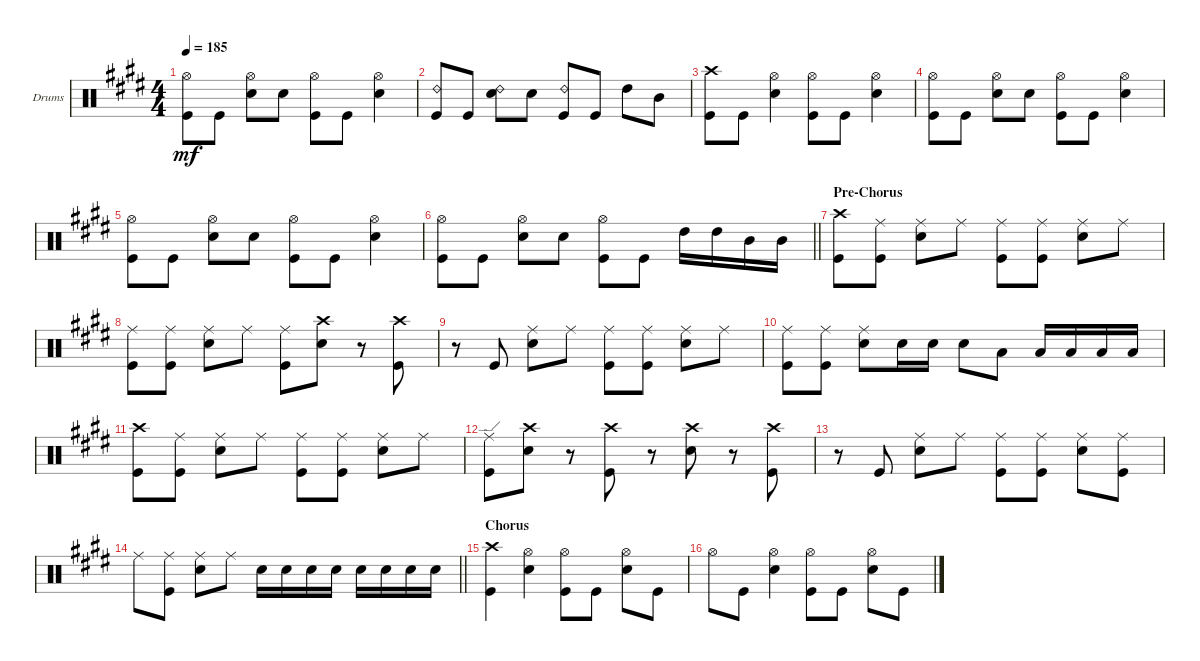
\defaultSystemsLayout 4
\bracketExtendMode groupsimilarinstruments
\firstSystemTrackNameOrientation horizontal
\otherSystemsTrackNameOrientation horizontal
\track ("Drums" "Drums") {instrument percussion}
\staff {score}
\articulation defaults
\ts (4 4)
\tempo 185
\clef neutral
\ks e
("Kick (hit)" "Hi-Hat (open)").8{dy mf} "Kick (hit)".8 ("Snare (hit) 2" "Hi-Hat (open)").8 "Snare (hit) 2".8 ("Kick (hit)" "Hi-Hat (open)").8 "Kick (hit)".8 ("Snare (hit) 2" "Hi-Hat (open)").4 |
("Kick (hit)" "Ride (bell) 2").8 "Kick (hit)".8 ("Snare (hit) 2" "Ride (bell) 2").8 "Snare (hit) 2".8 ("Kick (hit)" "Ride (bell) 2").8 "Kick (hit)".8 "High Tom (hit)".8 "Mid Tom (hit)".8 |
("Kick (hit)" "Crash high (hit)").8 "Kick (hit)".8 ("Snare (hit) 2" "Hi-Hat (open)").4 ("Kick (hit)" "Hi-Hat (open)").8 "Kick (hit)".8 ("Snare (hit) 2" "Hi-Hat (open)").4 |
("Kick (hit)" "Hi-Hat (open)").8 "Kick (hit)".8 ("Snare (hit) 2" "Hi-Hat (open)").8 "Snare (hit) 2".8 ("Kick (hit)" "Hi-Hat (open)").8 "Kick (hit)".8 ("Snare (hit) 2" "Hi-Hat (open)").4 |
("Kick (hit)" "Hi-Hat (open)").8 "Kick (hit)".8 ("Snare (hit) 2" "Hi-Hat (open)").8 "Snare (hit) 2".8 ("Kick (hit)" "Hi-Hat (open)").8 "Kick (hit)".8 ("Snare (hit) 2" "Hi-Hat (open)").4 |
\barLineRight lightlight
("Kick (hit)" "Hi-Hat (open)").8 "Kick (hit)".8 ("Snare (hit) 2" "Hi-Hat (open)").8 "Snare (hit) 2".8 ("Kick (hit)" "Hi-Hat (open)").8 "Kick (hit)".8 "High Tom (hit)".16 "High Tom (hit)".16 "Mid Tom (hit)".16 "Mid Tom (hit)".16 |
\section ("" "Pre-Chorus")
("Kick (hit)" "Crash high (hit)").8 ("Kick (hit)" "Ride (middle)").8 ("Snare (hit) 2" "Ride (middle)").8 "Ride (middle)".8 ("Kick (hit)" "Ride (middle)").8 ("Kick (hit)" "Ride (middle)").8 ("Snare (hit) 2" "Ride (middle)").8 "Ride (middle)".8 |
("Kick (hit)" "Ride (middle)").8 ("Kick (hit)" "Ride (middle)").8 ("Snare (hit) 2" "Ride (middle)").8 "Ride (middle)".8 ("Kick (hit)" "Ride (middle)").8 ("Snare (hit) 2" "Crash high (hit)").8 r.8 ("Kick (hit)" "Crash high (hit)").8 |
r.8 "Kick (hit)".8 ("Snare (hit) 2" "Ride (middle)").8 "Ride (middle)".8 ("Kick (hit)" "Ride (middle)").8 ("Kick (hit)" "Ride (middle)").8 ("Snare (hit) 2" "Ride (middle)").8 "Ride (middle)".8 |
("Kick (hit)" "Ride (middle)").8 ("Kick (hit)" "Ride (middle)").8 ("Snare (hit) 2" "Ride (middle)").8 "Snare (hit) 2".16 "Snare (hit) 2".16 "Snare (hit) 2".8 "Low Tom (hit)".8 "Low Tom (hit)".16 "Low Tom (hit)".16 "Low Tom (hit)".16 "Low Tom (hit)".16 |
("Kick (hit)" "Crash high (hit)").8 ("Kick (hit)" "Ride (middle)").8 ("Snare (hit) 2" "Ride (middle)").8 "Ride (middle)".8 ("Kick (hit)" "Ride (middle)").8 ("Kick (hit)" "Ride (middle)").8 ("Snare (hit) 2" "Ride (middle)").8 "Ride (middle)".8 |
("Kick (hit)" "Ride (edge)").8 ("Crash high (hit)" "Snare (hit) 2").8 r.8 ("Crash high (hit)" "Kick (hit)").8 r.8 ("Crash high (hit)" "Snare (hit) 2").8 r.8 ("Kick (hit)" "Crash high (hit)").8 |
r.8 "Kick (hit)".8 ("Snare (hit) 2" "Ride (middle)").8 "Ride (middle)".8 ("Kick (hit)" "Ride (middle)").8 ("Kick (hit)" "Ride (middle)").8 ("Snare (hit) 2" "Ride (middle)").8 ("Ride (middle)" "Kick (hit)").8 |
\barLineRight lightlight "Ride (middle)".8
("Kick (hit)" "Ride (middle)").8 ("Snare (hit) 2" "Ride (middle)").8 "Ride (middle)".8 "Snare (hit) 2".16 "Snare (hit) 2".16 "Snare (hit) 2".16 "Snare (hit) 2".16 "Snare (hit) 2".16 "Snare (hit) 2".16 "Snare (hit) 2".16 "Snare (hit) 2".16 |
\section ("" "Chorus")
("Kick (hit)" "Crash high (hit)").4 ("Snare (hit) 2" "Hi-Hat (open)").4 ("Kick (hit)" "Hi-Hat (open)").8 "Kick (hit)".8 ("Snare (hit) 2" "Hi-Hat (open)").8 "Kick (hit)".8 |
"Hi-Hat (open)".8 "Kick (hit)".8 ("Snare (hit) 2" "Hi-Hat (open)").4 ("Kick (hit)" "Hi-Hat (open)").8 "Kick (hit)".8 ("Snare (hit) 2" "Hi-Hat (open)").8 "Kick (hit)".8
